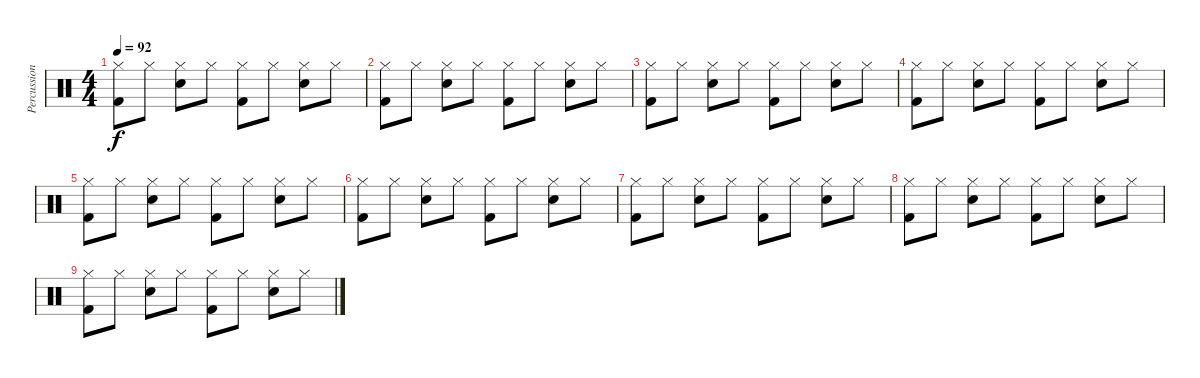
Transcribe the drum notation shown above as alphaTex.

\track ("Percussion" "Percussion") {instrument percussion}
\staff {score}
\articulation defaults
\ts (4 4)
\tempo 92
\clef neutral
\ks c
("Kick (hit) 2" "Hi-Hat (closed)").8{dy f} "Hi-Hat (closed)".8 ("Electric Snare (hit)" "Hi-Hat (closed)").8 "Hi-Hat (closed)".8 ("Kick (hit) 2" "Hi-Hat (closed)").8 "Hi-Hat (closed)".8 ("Electric Snare (hit)" "Hi-Hat (closed)").8 "Hi-Hat (closed)".8 |
("Kick (hit) 2" "Hi-Hat (closed)").8 "Hi-Hat (closed)".8 ("Electric Snare (hit)" "Hi-Hat (closed)").8 "Hi-Hat (closed)".8 ("Kick (hit) 2" "Hi-Hat (closed)").8 "Hi-Hat (closed)".8 ("Electric Snare (hit)" "Hi-Hat (closed)").8 "Hi-Hat (closed)".8 |
("Kick (hit) 2" "Hi-Hat (closed)").8 "Hi-Hat (closed)".8 ("Electric Snare (hit)" "Hi-Hat (closed)").8 "Hi-Hat (closed)".8 ("Kick (hit) 2" "Hi-Hat (closed)").8 "Hi-Hat (closed)".8 ("Electric Snare (hit)" "Hi-Hat (closed)").8 "Hi-Hat (closed)".8 |
("Kick (hit) 2" "Hi-Hat (closed)").8 "Hi-Hat (closed)".8 ("Electric Snare (hit)" "Hi-Hat (closed)").8 "Hi-Hat (closed)".8 ("Kick (hit) 2" "Hi-Hat (closed)").8 "Hi-Hat (closed)".8 ("Electric Snare (hit)" "Hi-Hat (closed)").8 "Hi-Hat (closed)".8 |
("Kick (hit) 2" "Hi-Hat (closed)").8 "Hi-Hat (closed)".8 ("Electric Snare (hit)" "Hi-Hat (closed)").8 "Hi-Hat (closed)".8 ("Kick (hit) 2" "Hi-Hat (closed)").8 "Hi-Hat (closed)".8 ("Electric Snare (hit)" "Hi-Hat (closed)").8 "Hi-Hat (closed)".8 |
("Kick (hit) 2" "Hi-Hat (closed)").8 "Hi-Hat (closed)".8 ("Electric Snare (hit)" "Hi-Hat (closed)").8 "Hi-Hat (closed)".8 ("Kick (hit) 2" "Hi-Hat (closed)").8 "Hi-Hat (closed)".8 ("Electric Snare (hit)" "Hi-Hat (closed)").8 "Hi-Hat (closed)".8 |
("Kick (hit) 2" "Hi-Hat (closed)").8 "Hi-Hat (closed)".8 ("Electric Snare (hit)" "Hi-Hat (closed)").8 "Hi-Hat (closed)".8 ("Kick (hit) 2" "Hi-Hat (closed)").8 "Hi-Hat (closed)".8 ("Electric Snare (hit)" "Hi-Hat (closed)").8 "Hi-Hat (closed)".8 |
("Kick (hit) 2" "Hi-Hat (closed)").8 "Hi-Hat (closed)".8 ("Electric Snare (hit)" "Hi-Hat (closed)").8 "Hi-Hat (closed)".8 ("Kick (hit) 2" "Hi-Hat (closed)").8 "Hi-Hat (closed)".8 ("Electric Snare (hit)" "Hi-Hat (closed)").8 "Hi-Hat (closed)".8 |
("Kick (hit) 2" "Hi-Hat (closed)").8 "Hi-Hat (closed)".8 ("Electric Snare (hit)" "Hi-Hat (closed)").8 "Hi-Hat (closed)".8 ("Kick (hit) 2" "Hi-Hat (closed)").8 "Hi-Hat (closed)".8 ("Electric Snare (hit)" "Hi-Hat (closed)").8 "Hi-Hat (closed)".8
